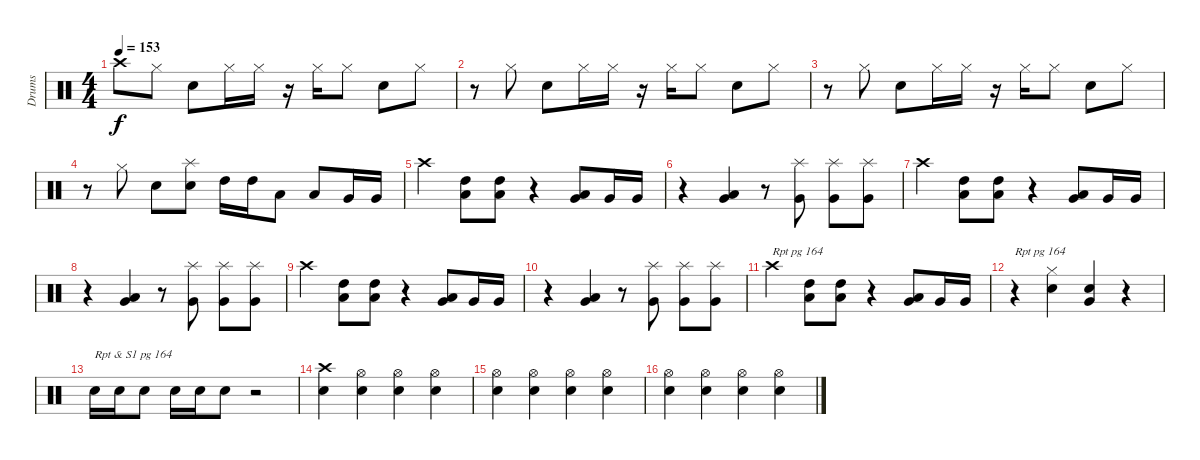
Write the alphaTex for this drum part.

\track ("Drums" "Drums") {instrument percussion}
\staff {score}
\articulation defaults
\ts (4 4)
\tempo 153
\clef neutral
\ks c "Crash high (hit)".8{dy f} "Hi-Hat (closed)".8 "Snare (hit) 2".8 "Hi-Hat (closed)".16 "Hi-Hat (closed)".16
r.16 "Hi-Hat (closed)".16 "Hi-Hat (closed)".8 "Snare (hit) 2".8 "Hi-Hat (closed)".8 |
r.8 "Hi-Hat (closed)".8 "Snare (hit) 2".8 "Hi-Hat (closed)".16 "Hi-Hat (closed)".16 r.16 "Hi-Hat (closed)".16 "Hi-Hat (closed)".8 "Snare (hit) 2".8 "Hi-Hat (closed)".8 |
r.8 "Hi-Hat (closed)".8 "Snare (hit) 2".8 "Hi-Hat (closed)".16 "Hi-Hat (closed)".16 r.16 "Hi-Hat (closed)".16 "Hi-Hat (closed)".8 "Snare (hit) 2".8 "Hi-Hat (closed)".8 |
r.8 "Hi-Hat (closed)".8 "Snare (hit) 2".8 ("Splash (hit)" "Snare (hit) 2").8 "High Tom (hit)".16 "High Tom (hit)".16 "Low Tom (hit)".8 "Low Tom (hit)".8 "Very Low Tom (hit)".16 "Very Low Tom (hit)".16 |
"Crash high (hit)".4 ("High Tom (hit)" "Low Tom (hit)").8 ("High Tom (hit)" "Low Tom (hit)").8 r.4 ("Low Tom (hit)" "Very Low Tom (hit)").8 "Very Low Tom (hit)".16 "Very Low Tom (hit)".16 |
r.4 ("Low Tom (hit)" "Very Low Tom (hit)").4 r.8 ("Splash (hit)" "Very Low Tom (hit)").8 ("Splash (hit)" "Very Low Tom (hit)").8 ("Splash (hit)" "Very Low Tom (hit)").8 |
"Crash high (hit)".4 ("High Tom (hit)" "Low Tom (hit)").8 ("High Tom (hit)" "Low Tom (hit)").8 r.4 ("Low Tom (hit)" "Very Low Tom (hit)").8 "Very Low Tom (hit)".16 "Very Low Tom (hit)".16 |
r.4 ("Low Tom (hit)" "Very Low Tom (hit)").4 r.8 ("Splash (hit)" "Very Low Tom (hit)").8 ("Splash (hit)" "Very Low Tom (hit)").8 ("Splash (hit)" "Very Low Tom (hit)").8 |
"Crash high (hit)".4 ("High Tom (hit)" "Low Tom (hit)").8 ("High Tom (hit)" "Low Tom (hit)").8 r.4 ("Low Tom (hit)" "Very Low Tom (hit)").8 "Very Low Tom (hit)".16 "Very Low Tom (hit)".16 |
r.4 ("Low Tom (hit)" "Very Low Tom (hit)").4 r.8 ("Splash (hit)" "Very Low Tom (hit)").8 ("Splash (hit)" "Very Low Tom (hit)").8 ("Splash (hit)" "Very Low Tom (hit)").8 |
"Crash high (hit)".4{txt "Rpt pg 164"} ("High Tom (hit)" "Low Tom (hit)").8 ("High Tom (hit)" "Low Tom (hit)").8 r.4 ("Low Tom (hit)" "Very Low Tom (hit)").8 "Very Low Tom (hit)".16 "Very Low Tom (hit)".16 |
r.4{txt "Rpt pg 164"} ("Hi-Hat (closed)" "Snare (hit) 2").4 ("Snare (hit) 2" "Very Low Tom (hit)").4 r.4 |
"Snare (hit) 2".16{txt "Rpt & S1 pg 164"} "Snare (hit) 2".16 "Snare (hit) 2".8 "Snare (hit) 2".16 "Snare (hit) 2".16 "Snare (hit) 2".8 r.2 |
("Crash high (hit)" "Snare (hit) 2").4 ("Hi-Hat (open)" "Snare (hit) 2").4 ("Hi-Hat (open)" "Snare (hit) 2").4 ("Hi-Hat (open)" "Snare (hit) 2").4 |
("Hi-Hat (open)" "Snare (hit) 2").4 ("Hi-Hat (open)" "Snare (hit) 2").4 ("Hi-Hat (open)" "Snare (hit) 2").4 ("Hi-Hat (open)" "Snare (hit) 2").4 |
("Hi-Hat (open)" "Snare (hit) 2").4 ("Hi-Hat (open)" "Snare (hit) 2").4 ("Hi-Hat (open)" "Snare (hit) 2").4 ("Hi-Hat (open)" "Snare (hit) 2").4
